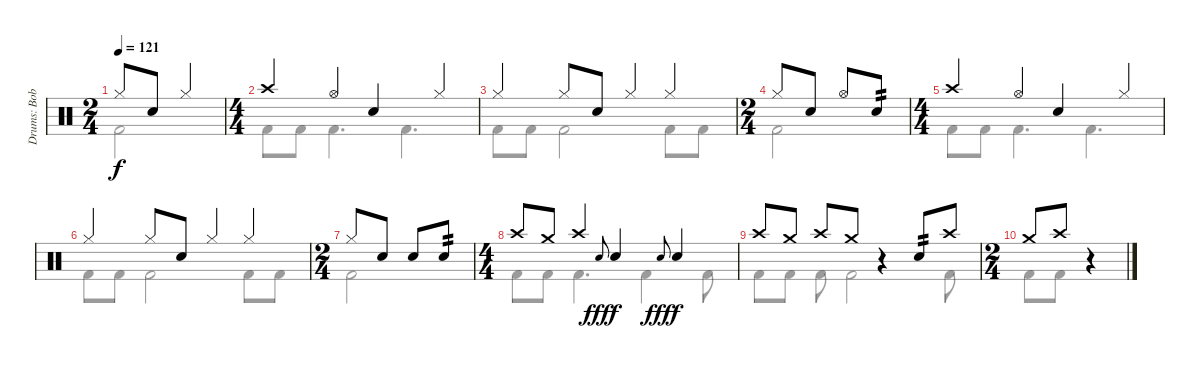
\track ("Drums: Bobby" "Drums: Bob") {instrument percussion}
\staff {score}
\articulation defaults
\voice
\ts (2 4)
\tempo 121
\clef neutral
\ks c "Hi-Hat (closed)".8{dy f} "Snare (hit) 2".8 "Hi-Hat (closed)".4
|
\ts (4 4)
"Crash high (hit)".4 "Hi-Hat (open)".4 "Snare (hit) 2".4 "Hi-Hat (closed)".4 |
"Hi-Hat (closed)".4 "Hi-Hat (closed)".8 "Snare (hit) 2".8 "Hi-Hat (closed)".4 "Hi-Hat (closed)".4 |
\ts (2 4)
"Hi-Hat (closed)".8 "Snare (hit) 2".8 "Hi-Hat (open)".8 "Snare (hit) 2".8{tp 2} |
\ts (4 4)
"Crash high (hit)".4 "Hi-Hat (open)".4 "Snare (hit) 2".4 "Hi-Hat (closed)".4 |
"Hi-Hat (closed)".4 "Hi-Hat (closed)".8 "Snare (hit) 2".8 "Hi-Hat (closed)".4 "Hi-Hat (closed)".4 |
\ts (2 4)
"Hi-Hat (closed)".8 "Snare (hit) 2".8 "Snare (hit) 2".8 "Snare (hit) 2".8{tp 2} |
\ts (4 4)
"Crash high (hit)".8 "Crash medium (hit)".8 "Crash high (hit)".4 "Electric Snare (hit)".8{gr onbeat dy fff} "Snare (hit) 2".4{dy f} "Electric Snare (hit)".8{gr onbeat dy fff} "Snare (hit) 2".4{dy f} |
"Crash high (hit)".8 "Crash medium (hit)".8 "Crash high (hit)".8 "Crash medium (hit)".8 r.4 "Snare (hit) 2".8{tp 2} "Crash high (hit)".8 |
\ts (2 4)
"Crash medium (hit)".8 "Crash high (hit)".8 r.4
\voice
\clef neutral
\ottava regular
\simile none
\ks c "Kick (hit) 2".2{dy f}
|
"Kick (hit) 2".8 "Kick (hit) 2".8 "Kick (hit) 2".4{d} "Kick (hit) 2".4{d} |
"Kick (hit) 2".8 "Kick (hit) 2".8 "Kick (hit) 2".2 "Kick (hit) 2".8 "Kick (hit) 2".8 |
"Kick (hit) 2".2 |
"Kick (hit) 2".8 "Kick (hit) 2".8 "Kick (hit) 2".4{d} "Kick (hit) 2".4{d} |
"Kick (hit) 2".8 "Kick (hit) 2".8 "Kick (hit) 2".2 "Kick (hit) 2".8 "Kick (hit) 2".8 |
"Kick (hit) 2".2 |
"Kick (hit) 2".8 "Kick (hit) 2".8 "Kick (hit) 2".4{d} "Kick (hit) 2".4 "Kick (hit) 2".8 |
"Kick (hit) 2".8 "Kick (hit) 2".8 "Kick (hit) 2".8 "Kick (hit) 2".2 "Kick (hit) 2".8 |
"Kick (hit) 2".8 "Kick (hit) 2".8 r.4
